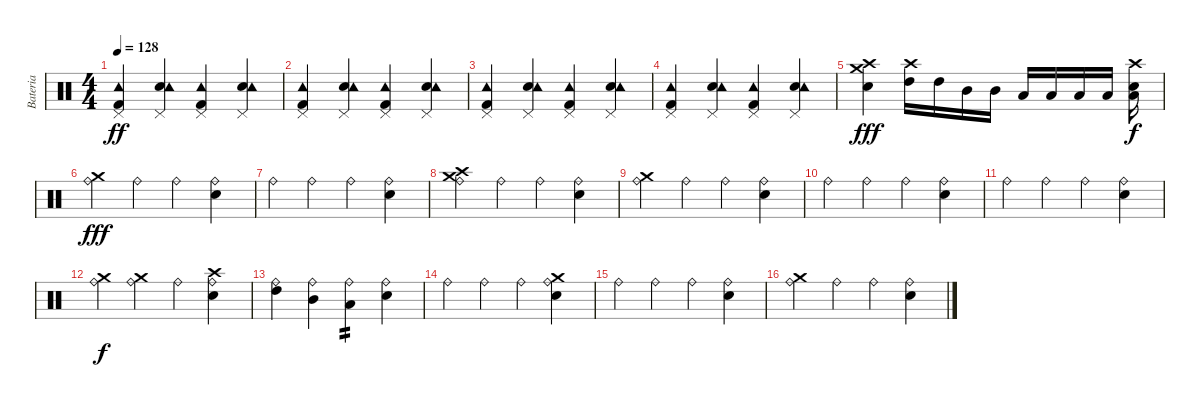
\track ("Bateria" "Bateria") {instrument percussion}
\staff {score}
\articulation defaults
\ts (4 4)
\tempo 128
\clef neutral
\ks c
("Pedal Hi-Hat (hit)" "Kick (hit) 2" "Tambourine (hit)").4{dy ff} ("Pedal Hi-Hat (hit)" "Electric Snare (hit)" "Tambourine (hit)").4 ("Pedal Hi-Hat (hit)" "Kick (hit) 2" "Tambourine (hit)").4 ("Pedal Hi-Hat (hit)" "Electric Snare (hit)" "Tambourine (hit)").4 |
("Pedal Hi-Hat (hit)" "Kick (hit) 2" "Tambourine (hit)").4 ("Pedal Hi-Hat (hit)" "Electric Snare (hit)" "Tambourine (hit)").4 ("Pedal Hi-Hat (hit)" "Kick (hit) 2" "Tambourine (hit)").4 ("Pedal Hi-Hat (hit)" "Electric Snare (hit)" "Tambourine (hit)").4 |
("Pedal Hi-Hat (hit)" "Kick (hit) 2" "Tambourine (hit)").4 ("Pedal Hi-Hat (hit)" "Electric Snare (hit)" "Tambourine (hit)").4 ("Pedal Hi-Hat (hit)" "Kick (hit) 2" "Tambourine (hit)").4 ("Pedal Hi-Hat (hit)" "Electric Snare (hit)" "Tambourine (hit)").4 |
("Pedal Hi-Hat (hit)" "Kick (hit) 2" "Tambourine (hit)").4 ("Pedal Hi-Hat (hit)" "Electric Snare (hit)" "Tambourine (hit)").4 ("Pedal Hi-Hat (hit)" "Kick (hit) 2" "Tambourine (hit)").4 ("Pedal Hi-Hat (hit)" "Electric Snare (hit)" "Tambourine (hit)").4 |
("Crash medium (hit)" "Crash high (hit)" "Electric Snare (hit)").4{dy fff} ("High Tom (hit)" "Crash high (hit)").16 "High Tom (hit)".16 "Mid Tom (hit)".16 "Mid Tom (hit)".16 "Low Tom (hit)".16 "Low Tom (hit)".16 "Low Tom (hit)".16 "Low Floor Tom (hit)".16 ("Low Floor Tom (hit)" "Crash high (hit)" "Electric Snare (hit)").16{dy f} |
("Ride (bell)" "Crash medium (hit)").4{dy fff} "Ride (bell)".4 "Ride (bell)".4 ("Ride (bell)" "Electric Snare (hit)").4 |
"Ride (bell)".4 "Ride (bell)".4 "Ride (bell)".4 ("Ride (bell)" "Electric Snare (hit)").4 |
("Ride (bell)" "Crash medium (hit)" "Crash high (hit)").4 "Ride (bell)".4 "Ride (bell)".4 ("Ride (bell)" "Electric Snare (hit)").4 |
("Ride (bell)" "Crash medium (hit)").4 "Ride (bell)".4 "Ride (bell)".4 ("Ride (bell)" "Electric Snare (hit)").4 |
"Ride (bell)".4 "Ride (bell)".4 "Ride (bell)".4 ("Ride (bell)" "Electric Snare (hit)").4 |
"Ride (bell)".4 "Ride (bell)".4 "Ride (bell)".4 ("Ride (bell)" "Electric Snare (hit)").4 |
("Ride (bell)" "Crash medium (hit)").4{dy f} ("Ride (bell)" "Crash medium (hit)").4 "Ride (bell)".4 ("Ride (bell)" "Electric Snare (hit)" "Crash high (hit)").4 |
("Ride (bell)" "High Tom (hit)").4 ("Ride (bell)" "Mid Tom (hit)").4 ("Ride (bell)" "Low Floor Tom (hit)").4{tp 2} ("Ride (bell)" "Electric Snare (hit)").4 |
"Ride (bell)".4 "Ride (bell)".4 "Ride (bell)".4 ("Ride (bell)" "Electric Snare (hit)" "Crash medium (hit)").4 |
"Ride (bell)".4 "Ride (bell)".4 "Ride (bell)".4 ("Ride (bell)" "Electric Snare (hit)").4 |
("Ride (bell)" "Crash medium (hit)").4 "Ride (bell)".4 "Ride (bell)".4 ("Ride (bell)" "Electric Snare (hit)").4
